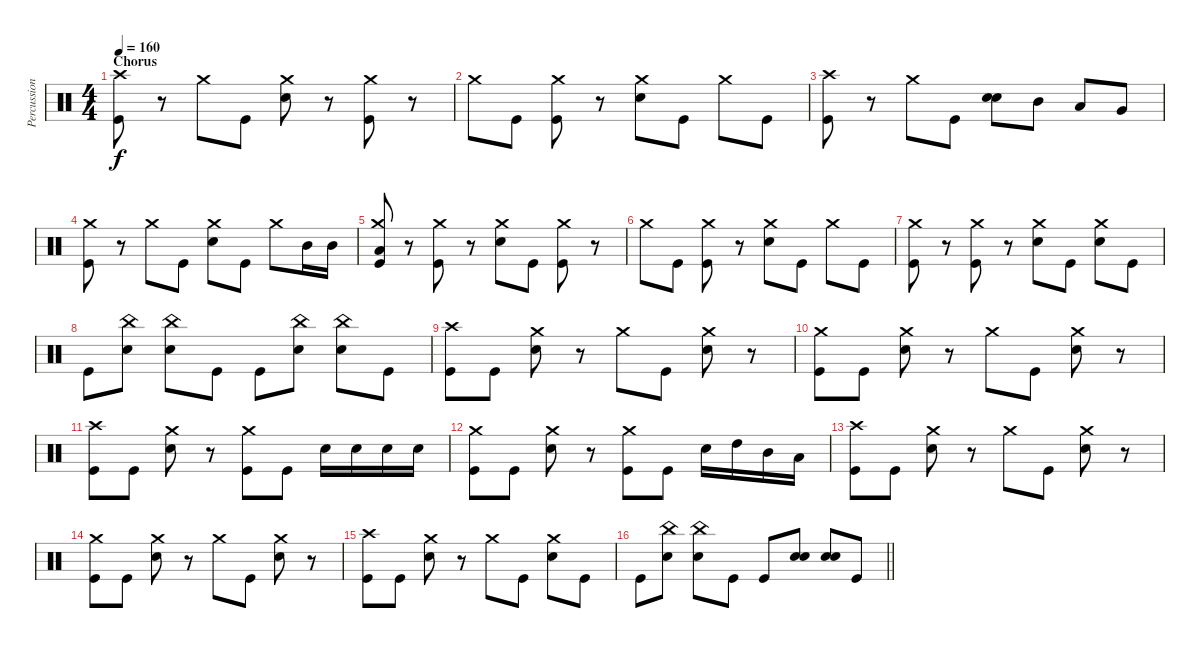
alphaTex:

\track ("Percussion" "Percussion") {instrument percussion}
\staff {score}
\articulation defaults
\ts (4 4)
\section ("" "Chorus")
\tempo 160
\clef neutral
\ks c
("Crash high (hit)" "Kick (hit)").8{dy f} r.8 "Crash medium (hit)".8 "Kick (hit)".8 ("Crash medium (hit)" "Snare (hit) 2").8 r.8 ("Crash medium (hit)" "Kick (hit)").8 r.8 |
"Crash medium (hit)".8 "Kick (hit)".8 ("Crash medium (hit)" "Kick (hit)").8 r.8 ("Crash medium (hit)" "Snare (hit) 2").8 "Kick (hit)".8 "Crash medium (hit)".8 "Kick (hit)".8 |
("Crash high (hit)" "Kick (hit)").8 r.8 "Crash medium (hit)".8 "Kick (hit)".8 ("Snare (hit) 2" "Snare (hit) 2").8{bd 60} "Mid Tom (hit)".8 "Low Tom (hit)".8 "Very Low Tom (hit)".8 |
("Crash medium (hit)" "Kick (hit)").8 r.8 "Crash medium (hit)".8 "Kick (hit)".8 ("Crash medium (hit)" "Snare (hit) 2").8 "Kick (hit)".8 "Crash medium (hit)".8 "Mid Tom (hit)".16 "Mid Tom (hit)".16 |
("Crash medium (hit)" "Low Tom (hit)" "Kick (hit)").8 r.8 ("Crash medium (hit)" "Kick (hit)").8 r.8 ("Crash medium (hit)" "Snare (hit) 2").8 "Kick (hit)".8 ("Crash medium (hit)" "Kick (hit)").8 r.8 |
"Crash medium (hit)".8 "Kick (hit)".8 ("Crash medium (hit)" "Kick (hit)").8 r.8 ("Crash medium (hit)" "Snare (hit) 2").8 "Kick (hit)".8 "Crash medium (hit)".8 "Kick (hit)".8 |
("Crash medium (hit)" "Kick (hit)").8 r.8 ("Crash medium (hit)" "Kick (hit)").8 r.8 ("Crash medium (hit)" "Snare (hit) 2").8 "Kick (hit)".8 ("Crash medium (hit)" "Snare (hit) 2").8 "Kick (hit)".8 |
"Kick (hit)".8 ("China (hit)" "Snare (hit) 2").8 ("China (hit)" "Snare (hit) 2").8 "Kick (hit)".8 "Kick (hit)".8 ("China (hit)" "Snare (hit) 2").8 ("China (hit)" "Snare (hit) 2").8 "Kick (hit)".8 |
("Crash high (hit)" "Kick (hit)").8 "Kick (hit)".8 ("Crash medium (hit)" "Snare (hit) 2").8 r.8 "Crash medium (hit)".8 "Kick (hit)".8 ("Crash medium (hit)" "Snare (hit) 2").8 r.8 |
("Crash medium (hit)" "Kick (hit)").8 "Kick (hit)".8 ("Crash medium (hit)" "Snare (hit) 2").8 r.8 "Crash medium (hit)".8 "Kick (hit)".8 ("Crash medium (hit)" "Snare (hit) 2").8 r.8 |
("Crash high (hit)" "Kick (hit)").8 "Kick (hit)".8 ("Crash medium (hit)" "Snare (hit) 2").8 r.8 ("Crash medium (hit)" "Kick (hit)").8 "Kick (hit)".8 "Snare (hit) 2".16 "Snare (hit) 2".16 "Snare (hit) 2".16 "Snare (hit) 2".16 |
("Crash medium (hit)" "Kick (hit)").8 "Kick (hit)".8 ("Crash medium (hit)" "Snare (hit) 2").8 r.8 ("Crash medium (hit)" "Kick (hit)").8 "Kick (hit)".8 "Snare (hit) 2".16 "High Tom (hit)".16 "Mid Tom (hit)".16 "Low Tom (hit)".16 |
("Crash high (hit)" "Kick (hit)").8 "Kick (hit)".8 ("Crash medium (hit)" "Snare (hit) 2").8 r.8 "Crash medium (hit)".8 "Kick (hit)".8 ("Crash medium (hit)" "Snare (hit) 2").8 r.8 |
("Crash medium (hit)" "Kick (hit)").8 "Kick (hit)".8 ("Crash medium (hit)" "Snare (hit) 2").8 r.8 "Crash medium (hit)".8 "Kick (hit)".8 ("Crash medium (hit)" "Snare (hit) 2").8 r.8 |
("Crash high (hit)" "Kick (hit)").8 "Kick (hit)".8 ("Crash medium (hit)" "Snare (hit) 2").8 r.8 "Crash medium (hit)".8 "Kick (hit)".8 ("Crash medium (hit)" "Snare (hit) 2").8 "Kick (hit)".8 |
\barLineRight lightlight "Kick (hit)".8
("China (hit)" "Snare (hit) 2").8 ("China (hit)" "Snare (hit) 2").8 "Kick (hit)".8 "Kick (hit)".8 ("Snare (hit) 2" "Snare (hit) 2").8{bd 120} ("Snare (hit) 2" "Snare (hit) 2").8{bd 120} "Kick (hit)".8
